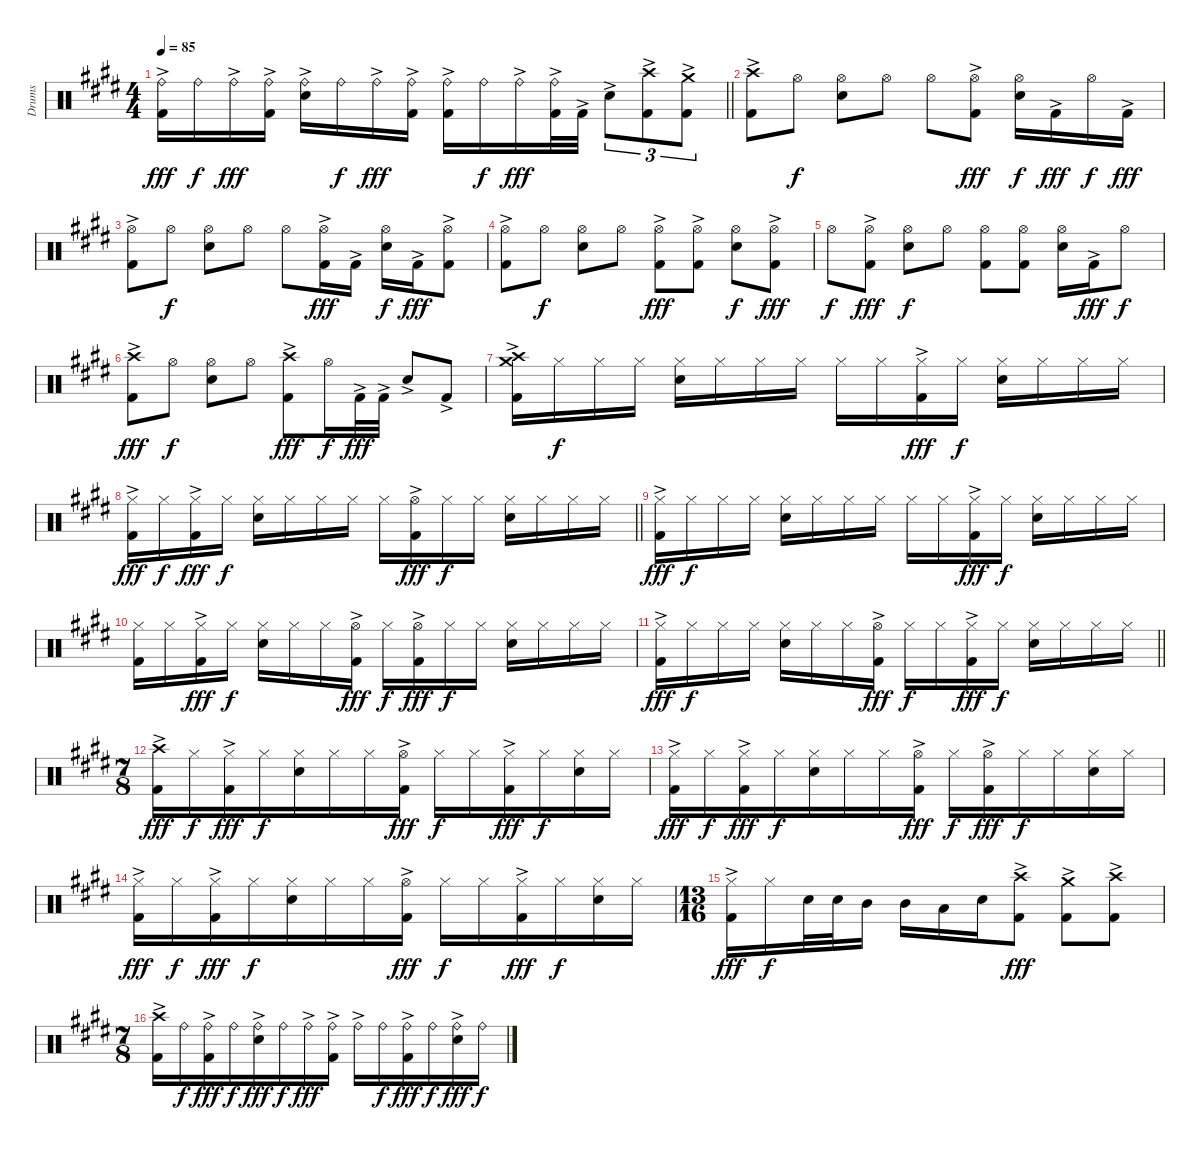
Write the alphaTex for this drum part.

\track ("Drums" "Drums") {instrument percussion}
\staff {score}
\articulation defaults
\ts (4 4)
\tempo 85
\clef neutral
\barLineRight lightlight
\ks e
("Ride (bell)"{ac} "Kick (hit) 2"{ac}).16{dy fff} "Ride (bell)".16{dy f} "Ride (bell)"{ac}.16{dy fff} ("Ride (bell)" "Kick (hit) 2"{ac}).16 ("Ride (bell)"{ac} "Snare (hit) 2").16 "Ride (bell)".16{dy f} "Ride (bell)"{ac}.16{dy fff} ("Ride (bell)" "Kick (hit) 2"{ac}).16 ("Ride (bell)"{ac} "Kick (hit) 2"{ac}).16 "Ride (bell)".16{dy f} "Ride (bell)"{ac}.16{dy fff} ("Ride (bell)" "Kick (hit) 2"{ac}).32 "Kick (hit) 2"{ac}.32 "Snare (hit) 2"{ac}.8{tu (3 2)} ("Crash high (hit)" "Kick (hit) 2"{ac}).8{tu (3 2)} ("Crash medium (hit)" "Kick (hit) 2"{ac}).8{tu (3 2)} |
("Crash high (hit)" "Kick (hit) 2"{ac}).8 "Hi-Hat (open)".8{dy f} ("Hi-Hat (open)" "Snare (hit) 2").8 "Hi-Hat (open)".8 "Hi-Hat (open)".8 ("Hi-Hat (open)" "Kick (hit) 2"{ac}).8{dy fff} ("Hi-Hat (open)" "Snare (hit) 2").16{dy f} "Kick (hit) 2"{ac}.16{dy fff} "Hi-Hat (open)".16{dy f} "Kick (hit) 2"{ac}.16{dy fff} |
("Hi-Hat (open)" "Kick (hit) 2"{ac}).8 "Hi-Hat (open)".8{dy f} ("Hi-Hat (open)" "Snare (hit) 2").8 "Hi-Hat (open)".8 "Hi-Hat (open)".8 ("Hi-Hat (open)" "Kick (hit) 2"{ac}).16{dy fff} "Kick (hit) 2"{ac}.16 ("Hi-Hat (open)" "Snare (hit) 2").16{dy f} "Kick (hit) 2"{ac}.16{dy fff} ("Hi-Hat (open)" "Kick (hit) 2"{ac}).8 |
("Hi-Hat (open)" "Kick (hit) 2"{ac}).8 "Hi-Hat (open)".8{dy f} ("Hi-Hat (open)" "Snare (hit) 2").8 "Hi-Hat (open)".8 ("Hi-Hat (open)" "Kick (hit) 2"{ac}).8{dy fff} ("Hi-Hat (open)" "Kick (hit) 2"{ac}).8 ("Hi-Hat (open)" "Snare (hit) 2").8{dy f} ("Hi-Hat (open)" "Kick (hit) 2"{ac}).8{dy fff} |
"Hi-Hat (open)".8{dy f} ("Hi-Hat (open)" "Kick (hit) 2"{ac}).8{dy fff} ("Hi-Hat (open)" "Snare (hit) 2").8{dy f} "Hi-Hat (open)".8 ("Hi-Hat (open)" "Kick (hit) 2").8 ("Hi-Hat (open)" "Kick (hit) 2").8 ("Hi-Hat (open)" "Snare (hit) 2").16 "Kick (hit) 2"{ac}.16{dy fff} "Hi-Hat (open)".8{dy f} |
("Crash high (hit)" "Kick (hit) 2"{ac}).8{dy fff} "Hi-Hat (open)".8{dy f} ("Hi-Hat (open)" "Snare (hit) 2").8 "Hi-Hat (open)".8 ("Crash high (hit)" "Kick (hit) 2"{ac}).8{dy fff} "Hi-Hat (open)".16{dy f} "Kick (hit) 2"{ac}.32{dy fff} "Kick (hit) 2"{ac}.32 "Snare (hit) 2"{ac}.8 "Kick (hit) 2"{ac}.8 |
("Crash high (hit)" "Crash medium (hit)" "Kick (hit) 2"{ac}).16 "Hi-Hat (closed)".16{dy f} "Hi-Hat (closed)".16 "Hi-Hat (closed)".16 ("Hi-Hat (closed)" "Snare (hit) 2").16 "Hi-Hat (closed)".16 "Hi-Hat (closed)".16 "Hi-Hat (closed)".16 "Hi-Hat (closed)".16 "Hi-Hat (closed)".16 ("Hi-Hat (closed)" "Kick (hit) 2"{ac}).16{dy fff} "Hi-Hat (closed)".16{dy f} ("Hi-Hat (closed)" "Snare (hit) 2").16 "Hi-Hat (closed)".16 "Hi-Hat (closed)".16 "Hi-Hat (closed)".16 |
\barLineRight lightlight
("Hi-Hat (closed)" "Kick (hit) 2"{ac}).16{dy fff} "Hi-Hat (closed)".16{dy f} ("Hi-Hat (closed)" "Kick (hit) 2"{ac}).16{dy fff} "Hi-Hat (closed)".16{dy f} ("Hi-Hat (closed)" "Snare (hit) 2").16 "Hi-Hat (closed)".16 "Hi-Hat (closed)".16 "Hi-Hat (closed)".16 "Hi-Hat (closed)".16 ("Hi-Hat (open)" "Kick (hit) 2"{ac}).16{dy fff} "Hi-Hat (closed)".16{dy f} "Hi-Hat (closed)".16 ("Hi-Hat (closed)" "Snare (hit) 2").16 "Hi-Hat (closed)".16 "Hi-Hat (closed)".16 "Hi-Hat (closed)".16 |
("Hi-Hat (closed)" "Kick (hit) 2"{ac}).16{dy fff} "Hi-Hat (closed)".16{dy f} "Hi-Hat (closed)".16 "Hi-Hat (closed)".16 ("Hi-Hat (closed)" "Snare (hit) 2").16 "Hi-Hat (closed)".16 "Hi-Hat (closed)".16 "Hi-Hat (closed)".16 "Hi-Hat (closed)".16 "Hi-Hat (closed)".16 ("Hi-Hat (closed)" "Kick (hit) 2"{ac}).16{dy fff} "Hi-Hat (closed)".16{dy f} ("Hi-Hat (closed)" "Snare (hit) 2").16 "Hi-Hat (closed)".16 "Hi-Hat (closed)".16 "Hi-Hat (closed)".16 |
("Hi-Hat (closed)" "Kick (hit) 2").16 "Hi-Hat (closed)".16 ("Hi-Hat (closed)" "Kick (hit) 2"{ac}).16{dy fff} "Hi-Hat (closed)".16{dy f} ("Hi-Hat (closed)" "Snare (hit) 2").16 "Hi-Hat (closed)".16 "Hi-Hat (closed)".16 ("Hi-Hat (open)" "Kick (hit) 2"{ac}).16{dy fff} "Hi-Hat (closed)".16{dy f} ("Hi-Hat (open)" "Kick (hit) 2"{ac}).16{dy fff} "Hi-Hat (closed)".16{dy f} "Hi-Hat (closed)".16 ("Hi-Hat (closed)" "Snare (hit) 2").16 "Hi-Hat (closed)".16 "Hi-Hat (closed)".16 "Hi-Hat (closed)".16 |
\barLineRight lightlight
("Hi-Hat (closed)" "Kick (hit) 2"{ac}).16{dy fff} "Hi-Hat (closed)".16{dy f} "Hi-Hat (closed)".16 "Hi-Hat (closed)".16 ("Hi-Hat (closed)" "Snare (hit) 2").16 "Hi-Hat (closed)".16 "Hi-Hat (closed)".16 ("Hi-Hat (open)" "Kick (hit) 2"{ac}).16{dy fff} "Hi-Hat (closed)".16{dy f} "Hi-Hat (closed)".16 ("Hi-Hat (closed)" "Kick (hit) 2"{ac}).16{dy fff} "Hi-Hat (closed)".16{dy f} ("Hi-Hat (closed)" "Snare (hit) 2").16 "Hi-Hat (closed)".16 "Hi-Hat (closed)".16 "Hi-Hat (closed)".16 |
\ts (7 8)
("Crash high (hit)" "Kick (hit) 2"{ac}).16{dy fff} "Hi-Hat (closed)".16{dy f} ("Hi-Hat (closed)" "Kick (hit) 2"{ac}).16{dy fff} "Hi-Hat (closed)".16{dy f} ("Hi-Hat (closed)" "Snare (hit) 2").16 "Hi-Hat (closed)".16 "Hi-Hat (closed)".16 ("Hi-Hat (open)" "Kick (hit) 2"{ac}).16{dy fff} "Hi-Hat (closed)".16{dy f} "Hi-Hat (closed)".16 ("Hi-Hat (closed)" "Kick (hit) 2"{ac}).16{dy fff} "Hi-Hat (closed)".16{dy f} ("Hi-Hat (closed)" "Snare (hit) 2").16 "Hi-Hat (closed)".16 |
("Hi-Hat (closed)" "Kick (hit) 2"{ac}).16{dy fff} "Hi-Hat (closed)".16{dy f} ("Hi-Hat (closed)" "Kick (hit) 2"{ac}).16{dy fff} "Hi-Hat (closed)".16{dy f} ("Hi-Hat (closed)" "Snare (hit) 2").16 "Hi-Hat (closed)".16 "Hi-Hat (closed)".16 ("Hi-Hat (open)" "Kick (hit) 2"{ac}).16{dy fff} "Hi-Hat (closed)".16{dy f} ("Hi-Hat (open)" "Kick (hit) 2"{ac}).16{dy fff} "Hi-Hat (closed)".16{dy f} "Hi-Hat (closed)".16 ("Hi-Hat (closed)" "Snare (hit) 2").16 "Hi-Hat (closed)".16 |
("Hi-Hat (closed)" "Kick (hit) 2"{ac}).16{dy fff} "Hi-Hat (closed)".16{dy f} ("Hi-Hat (closed)" "Kick (hit) 2"{ac}).16{dy fff} "Hi-Hat (closed)".16{dy f} ("Hi-Hat (closed)" "Snare (hit) 2").16 "Hi-Hat (closed)".16 "Hi-Hat (closed)".16 ("Hi-Hat (open)" "Kick (hit) 2"{ac}).16{dy fff} "Hi-Hat (closed)".16{dy f} "Hi-Hat (closed)".16 ("Hi-Hat (closed)" "Kick (hit) 2"{ac}).16{dy fff} "Hi-Hat (closed)".16{dy f} ("Hi-Hat (closed)" "Snare (hit) 2").16 "Hi-Hat (closed)".16 |
\ts (13 16)
("Hi-Hat (closed)" "Kick (hit) 2"{ac}).16{dy fff} "Hi-Hat (closed)".16{dy f} "Snare (hit) 2".32 "Snare (hit) 2".32 "Mid Tom (hit)".16 "Mid Tom (hit)".16 "Low Tom (hit)".16 "Snare (hit) 2".16 ("Crash high (hit)" "Kick (hit) 2"{ac}).8{dy fff} ("Crash medium (hit)" "Kick (hit) 2"{ac}).8 ("Crash high (hit)" "Kick (hit) 2"{ac}).8 |
\ts (7 8)
("Crash high (hit)" "Kick (hit) 2"{ac}).16 "Ride (bell)".16{dy f} ("Ride (bell)"{ac} "Kick (hit) 2"{ac}).16{dy fff} "Ride (bell)".16{dy f} ("Ride (bell)"{ac} "Snare (hit) 2").16{dy fff} "Ride (bell)".16{dy f} "Ride (bell)"{ac}.16{dy fff} ("Ride (bell)" "Kick (hit) 2"{ac}).16 "Ride (bell)"{ac}.16 "Ride (bell)".16{dy f} ("Ride (bell)"{ac} "Kick (hit) 2"{ac}).16{dy fff} "Ride (bell)".16{dy f} ("Ride (bell)"{ac} "Snare (hit) 2").16{dy fff} "Ride (bell)".16{dy f}
